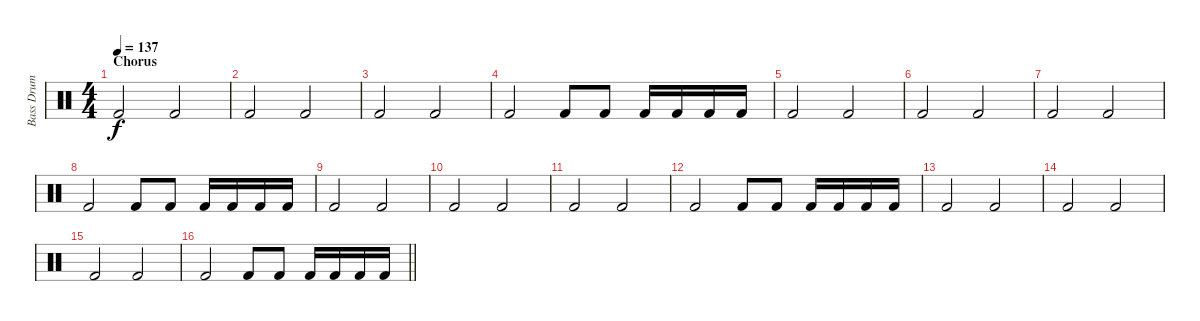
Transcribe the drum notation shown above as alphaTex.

\track ("Bass Drum" "Bass Drum") {instrument percussion}
\staff {score}
\articulation defaults
\ts (4 4)
\section ("" "Chorus")
\tempo 137
\clef neutral
\ks c "Kick (hit) 2".2{dy f} "Kick (hit) 2".2
|
"Kick (hit) 2".2 "Kick (hit) 2".2 |
"Kick (hit) 2".2 "Kick (hit) 2".2 |
"Kick (hit) 2".2 "Kick (hit) 2".8 "Kick (hit) 2".8 "Kick (hit) 2".16 "Kick (hit) 2".16 "Kick (hit) 2".16 "Kick (hit) 2".16 |
"Kick (hit) 2".2 "Kick (hit) 2".2 |
"Kick (hit) 2".2 "Kick (hit) 2".2 |
"Kick (hit) 2".2 "Kick (hit) 2".2 |
"Kick (hit) 2".2 "Kick (hit) 2".8 "Kick (hit) 2".8 "Kick (hit) 2".16 "Kick (hit) 2".16 "Kick (hit) 2".16 "Kick (hit) 2".16 |
"Kick (hit) 2".2 "Kick (hit) 2".2 |
"Kick (hit) 2".2 "Kick (hit) 2".2 |
"Kick (hit) 2".2 "Kick (hit) 2".2 |
"Kick (hit) 2".2 "Kick (hit) 2".8 "Kick (hit) 2".8 "Kick (hit) 2".16 "Kick (hit) 2".16 "Kick (hit) 2".16 "Kick (hit) 2".16 |
"Kick (hit) 2".2 "Kick (hit) 2".2 |
"Kick (hit) 2".2 "Kick (hit) 2".2 |
"Kick (hit) 2".2 "Kick (hit) 2".2 |
\barLineRight lightlight "Kick (hit) 2".2 "Kick (hit) 2".8 "Kick (hit) 2".8 "Kick (hit) 2".16 "Kick (hit) 2".16 "Kick (hit) 2".16 "Kick (hit) 2".16
